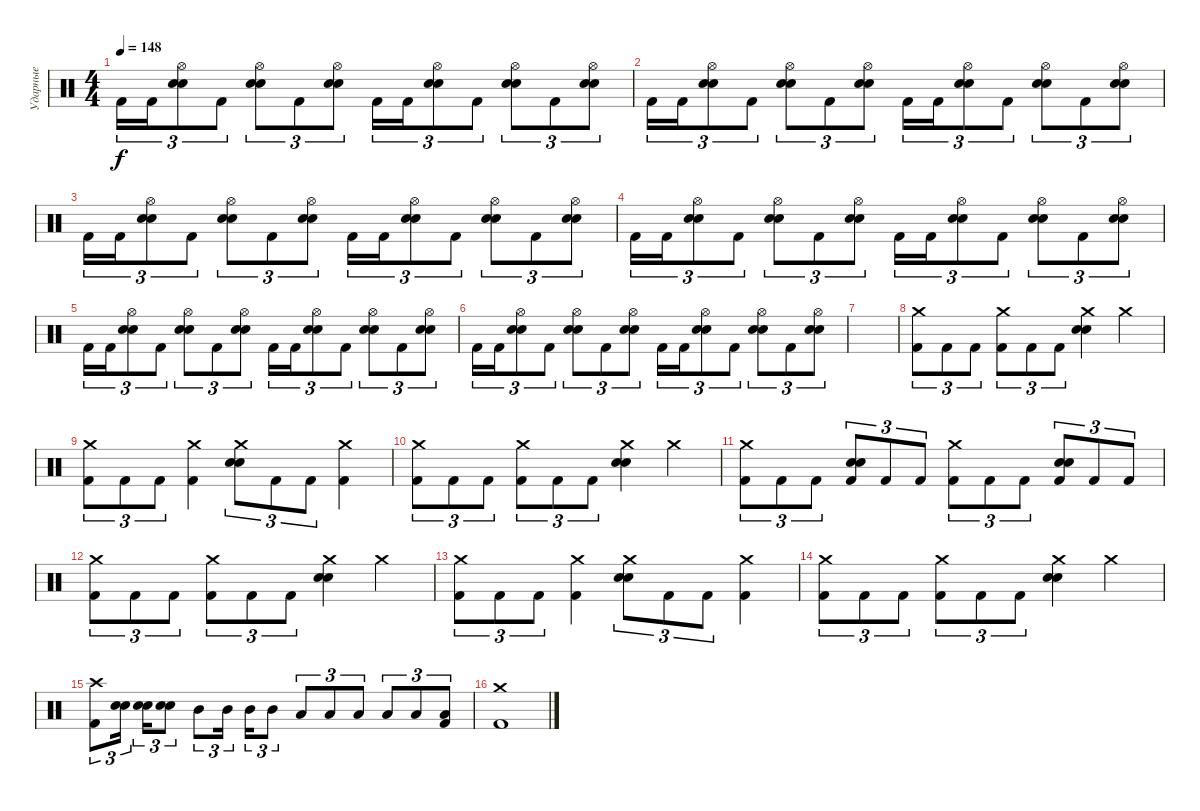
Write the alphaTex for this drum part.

\track ("Ударные" "Ударные") {instrument percussion}
\staff {score}
\articulation defaults
\ts (4 4)
\tempo 148
\clef neutral
\ks c "Kick (hit) 2".16{tu (3 2) dy f} "Kick (hit) 2".16{tu (3 2)}
("Hi-Hat (open)" "Snare (hit) 2" "Electric Snare (hit)").8{tu (3 2)} "Kick (hit) 2".8{tu (3 2)} ("Hi-Hat (open)" "Snare (hit) 2" "Electric Snare (hit)").8{tu (3 2)} "Kick (hit) 2".8{tu (3 2)} ("Hi-Hat (open)" "Snare (hit) 2" "Electric Snare (hit)").8{tu (3 2)} "Kick (hit) 2".16{tu (3 2)} "Kick (hit) 2".16{tu (3 2)} ("Hi-Hat (open)" "Snare (hit) 2" "Electric Snare (hit)").8{tu (3 2)} "Kick (hit) 2".8{tu (3 2)} ("Hi-Hat (open)" "Snare (hit) 2" "Electric Snare (hit)").8{tu (3 2)} "Kick (hit) 2".8{tu (3 2)} ("Hi-Hat (open)" "Snare (hit) 2" "Electric Snare (hit)").8{tu (3 2)} |
"Kick (hit) 2".16{tu (3 2)} "Kick (hit) 2".16{tu (3 2)} ("Hi-Hat (open)" "Snare (hit) 2" "Electric Snare (hit)").8{tu (3 2)} "Kick (hit) 2".8{tu (3 2)} ("Hi-Hat (open)" "Snare (hit) 2" "Electric Snare (hit)").8{tu (3 2)} "Kick (hit) 2".8{tu (3 2)} ("Hi-Hat (open)" "Snare (hit) 2" "Electric Snare (hit)").8{tu (3 2)} "Kick (hit) 2".16{tu (3 2)} "Kick (hit) 2".16{tu (3 2)} ("Hi-Hat (open)" "Snare (hit) 2" "Electric Snare (hit)").8{tu (3 2)} "Kick (hit) 2".8{tu (3 2)} ("Hi-Hat (open)" "Snare (hit) 2" "Electric Snare (hit)").8{tu (3 2)} "Kick (hit) 2".8{tu (3 2)} ("Hi-Hat (open)" "Snare (hit) 2" "Electric Snare (hit)").8{tu (3 2)} |
"Kick (hit) 2".16{tu (3 2)} "Kick (hit) 2".16{tu (3 2)} ("Hi-Hat (open)" "Snare (hit) 2" "Electric Snare (hit)").8{tu (3 2)} "Kick (hit) 2".8{tu (3 2)} ("Hi-Hat (open)" "Snare (hit) 2" "Electric Snare (hit)").8{tu (3 2)} "Kick (hit) 2".8{tu (3 2)} ("Hi-Hat (open)" "Snare (hit) 2" "Electric Snare (hit)").8{tu (3 2)} "Kick (hit) 2".16{tu (3 2)} "Kick (hit) 2".16{tu (3 2)} ("Hi-Hat (open)" "Snare (hit) 2" "Electric Snare (hit)").8{tu (3 2)} "Kick (hit) 2".8{tu (3 2)} ("Hi-Hat (open)" "Snare (hit) 2" "Electric Snare (hit)").8{tu (3 2)} "Kick (hit) 2".8{tu (3 2)} ("Hi-Hat (open)" "Snare (hit) 2" "Electric Snare (hit)").8{tu (3 2)} |
"Kick (hit) 2".16{tu (3 2)} "Kick (hit) 2".16{tu (3 2)} ("Hi-Hat (open)" "Snare (hit) 2" "Electric Snare (hit)").8{tu (3 2)} "Kick (hit) 2".8{tu (3 2)} ("Hi-Hat (open)" "Snare (hit) 2" "Electric Snare (hit)").8{tu (3 2)} "Kick (hit) 2".8{tu (3 2)} ("Hi-Hat (open)" "Snare (hit) 2" "Electric Snare (hit)").8{tu (3 2)} "Kick (hit) 2".16{tu (3 2)} "Kick (hit) 2".16{tu (3 2)} ("Hi-Hat (open)" "Snare (hit) 2" "Electric Snare (hit)").8{tu (3 2)} "Kick (hit) 2".8{tu (3 2)} ("Hi-Hat (open)" "Snare (hit) 2" "Electric Snare (hit)").8{tu (3 2)} "Kick (hit) 2".8{tu (3 2)} ("Hi-Hat (open)" "Snare (hit) 2" "Electric Snare (hit)").8{tu (3 2)} |
"Kick (hit) 2".16{tu (3 2)} "Kick (hit) 2".16{tu (3 2)} ("Hi-Hat (open)" "Snare (hit) 2" "Electric Snare (hit)").8{tu (3 2)} "Kick (hit) 2".8{tu (3 2)} ("Hi-Hat (open)" "Snare (hit) 2" "Electric Snare (hit)").8{tu (3 2)} "Kick (hit) 2".8{tu (3 2)} ("Hi-Hat (open)" "Snare (hit) 2" "Electric Snare (hit)").8{tu (3 2)} "Kick (hit) 2".16{tu (3 2)} "Kick (hit) 2".16{tu (3 2)} ("Hi-Hat (open)" "Snare (hit) 2" "Electric Snare (hit)").8{tu (3 2)} "Kick (hit) 2".8{tu (3 2)} ("Hi-Hat (open)" "Snare (hit) 2" "Electric Snare (hit)").8{tu (3 2)} "Kick (hit) 2".8{tu (3 2)} ("Hi-Hat (open)" "Snare (hit) 2" "Electric Snare (hit)").8{tu (3 2)} |
"Kick (hit) 2".16{tu (3 2)} "Kick (hit) 2".16{tu (3 2)} ("Hi-Hat (open)" "Snare (hit) 2" "Electric Snare (hit)").8{tu (3 2)} "Kick (hit) 2".8{tu (3 2)} ("Hi-Hat (open)" "Snare (hit) 2" "Electric Snare (hit)").8{tu (3 2)} "Kick (hit) 2".8{tu (3 2)} ("Hi-Hat (open)" "Snare (hit) 2" "Electric Snare (hit)").8{tu (3 2)} "Kick (hit) 2".16{tu (3 2)} "Kick (hit) 2".16{tu (3 2)} ("Hi-Hat (open)" "Snare (hit) 2" "Electric Snare (hit)").8{tu (3 2)} "Kick (hit) 2".8{tu (3 2)} ("Hi-Hat (open)" "Snare (hit) 2" "Electric Snare (hit)").8{tu (3 2)} "Kick (hit) 2".8{tu (3 2)} ("Hi-Hat (open)" "Snare (hit) 2" "Electric Snare (hit)").8{tu (3 2)} |
|
("Crash medium (hit)" "Kick (hit) 2").8{tu (3 2)} "Kick (hit) 2".8{tu (3 2)} "Kick (hit) 2".8{tu (3 2)} ("Crash medium (hit)" "Kick (hit) 2").8{tu (3 2)} "Kick (hit) 2".8{tu (3 2)} "Kick (hit) 2".8{tu (3 2)} ("Crash medium (hit)" "Electric Snare (hit)" "Snare (hit) 2").4 "Crash medium (hit)".4 |
("Crash medium (hit)" "Kick (hit) 2").8{tu (3 2)} "Kick (hit) 2".8{tu (3 2)} "Kick (hit) 2".8{tu (3 2)} ("Crash medium (hit)" "Kick (hit) 2").4 ("Crash medium (hit)" "Electric Snare (hit)" "Snare (hit) 2").8{tu (3 2)} "Kick (hit) 2".8{tu (3 2)} "Kick (hit) 2".8{tu (3 2)} ("Crash medium (hit)" "Kick (hit) 2").4 |
("Crash medium (hit)" "Kick (hit) 2").8{tu (3 2)} "Kick (hit) 2".8{tu (3 2)} "Kick (hit) 2".8{tu (3 2)} ("Crash medium (hit)" "Kick (hit) 2").8{tu (3 2)} "Kick (hit) 2".8{tu (3 2)} "Kick (hit) 2".8{tu (3 2)} ("Crash medium (hit)" "Electric Snare (hit)" "Snare (hit) 2").4 "Crash medium (hit)".4 |
("Crash medium (hit)" "Kick (hit) 2").8{tu (3 2)} "Kick (hit) 2".8{tu (3 2)} "Kick (hit) 2".8{tu (3 2)} ("Electric Snare (hit)" "Snare (hit) 2" "Kick (hit) 2").8{tu (3 2)} "Kick (hit) 2".8{tu (3 2)} "Kick (hit) 2".8{tu (3 2)} ("Crash medium (hit)" "Kick (hit) 2").8{tu (3 2)} "Kick (hit) 2".8{tu (3 2)} "Kick (hit) 2".8{tu (3 2)} ("Electric Snare (hit)" "Snare (hit) 2" "Kick (hit) 2").8{tu (3 2)} "Kick (hit) 2".8{tu (3 2)} "Kick (hit) 2".8{tu (3 2)} |
("Crash medium (hit)" "Kick (hit) 2").8{tu (3 2)} "Kick (hit) 2".8{tu (3 2)} "Kick (hit) 2".8{tu (3 2)} ("Crash medium (hit)" "Kick (hit) 2").8{tu (3 2)} "Kick (hit) 2".8{tu (3 2)} "Kick (hit) 2".8{tu (3 2)} ("Crash medium (hit)" "Electric Snare (hit)" "Snare (hit) 2").4 "Crash medium (hit)".4 |
("Crash medium (hit)" "Kick (hit) 2").8{tu (3 2)} "Kick (hit) 2".8{tu (3 2)} "Kick (hit) 2".8{tu (3 2)} ("Crash medium (hit)" "Kick (hit) 2").4 ("Crash medium (hit)" "Electric Snare (hit)" "Snare (hit) 2").8{tu (3 2)} "Kick (hit) 2".8{tu (3 2)} "Kick (hit) 2".8{tu (3 2)} ("Crash medium (hit)" "Kick (hit) 2").4 |
("Crash medium (hit)" "Kick (hit) 2").8{tu (3 2)} "Kick (hit) 2".8{tu (3 2)} "Kick (hit) 2".8{tu (3 2)} ("Crash medium (hit)" "Kick (hit) 2").8{tu (3 2)} "Kick (hit) 2".8{tu (3 2)} "Kick (hit) 2".8{tu (3 2)} ("Crash medium (hit)" "Electric Snare (hit)" "Snare (hit) 2").4 "Crash medium (hit)".4 |
("Crash high (hit)" "Kick (hit) 2").8{tu (3 2)} ("Electric Snare (hit)" "Snare (hit) 2").16{tu (3 2) beam splitsecondary} ("Electric Snare (hit)" "Snare (hit) 2").16{tu (3 2)} ("Electric Snare (hit)" "Snare (hit) 2").8{tu (3 2)} "Mid Tom (hit)".8{tu (3 2)} "Mid Tom (hit)".16{tu (3 2) beam splitsecondary} "Mid Tom (hit)".16{tu (3 2)} "Mid Tom (hit)".8{tu (3 2)} "Low Tom (hit)".8{tu (3 2)} "Low Tom (hit)".8{tu (3 2)} "Low Tom (hit)".8{tu (3 2)} "Low Floor Tom (hit)".8{tu (3 2)} "Low Floor Tom (hit)".8{tu (3 2)} ("Low Floor Tom (hit)" "Kick (hit) 2").8{tu (3 2)} |
("Crash medium (hit)" "Kick (hit) 2").1
